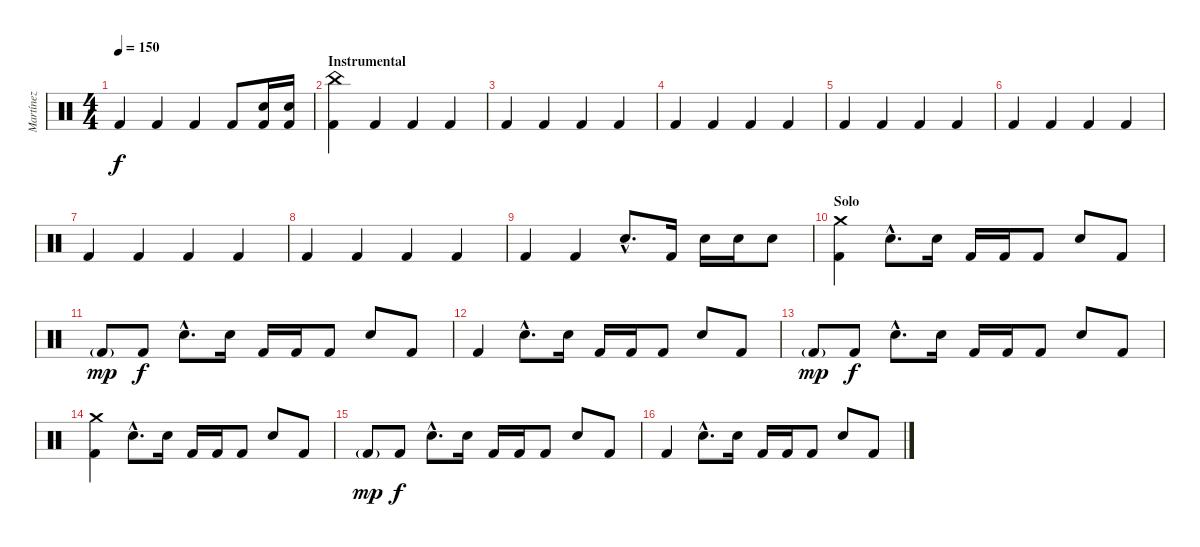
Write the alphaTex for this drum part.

\track ("Martínez" "Martínez") {instrument percussion}
\staff {score}
\articulation defaults
\ts (4 4)
\tempo 150
\clef neutral
\ks c "Kick (hit) 2".4{dy f} "Kick (hit) 2".4 "Kick (hit) 2".4 "Kick (hit) 2".8
("Kick (hit) 2" "Snare (hit) 2").16 ("Kick (hit) 2" "Snare (hit) 2").16 |
\section ("" "Instrumental")
("China (hit)" "Kick (hit) 2").4 "Kick (hit) 2".4 "Kick (hit) 2".4 "Kick (hit) 2".4 |
"Kick (hit) 2".4 "Kick (hit) 2".4 "Kick (hit) 2".4 "Kick (hit) 2".4 |
"Kick (hit) 2".4 "Kick (hit) 2".4 "Kick (hit) 2".4 "Kick (hit) 2".4 |
"Kick (hit) 2".4 "Kick (hit) 2".4 "Kick (hit) 2".4 "Kick (hit) 2".4 |
"Kick (hit) 2".4 "Kick (hit) 2".4 "Kick (hit) 2".4 "Kick (hit) 2".4 |
"Kick (hit) 2".4 "Kick (hit) 2".4 "Kick (hit) 2".4 "Kick (hit) 2".4 |
"Kick (hit) 2".4 "Kick (hit) 2".4 "Kick (hit) 2".4 "Kick (hit) 2".4 |
"Kick (hit) 2".4 "Kick (hit) 2".4 "Electric Snare (hit)"{hac}.8{d} "Kick (hit) 2".16 "Electric Snare (hit)".16 "Electric Snare (hit)".16 "Electric Snare (hit)".8 |
\section ("" "Solo")
("Crash medium (hit)" "Kick (hit) 2").4 "Electric Snare (hit)"{hac}.8{d} "Electric Snare (hit)".16 "Kick (hit) 2".16 "Kick (hit) 2".16 "Kick (hit) 2".8 "Electric Snare (hit)".8 "Kick (hit) 2".8 |
"Kick (hit) 2"{g}.8{dy mp} "Kick (hit) 2".8{dy f} "Electric Snare (hit)"{hac}.8{d} "Electric Snare (hit)".16 "Kick (hit) 2".16 "Kick (hit) 2".16 "Kick (hit) 2".8 "Electric Snare (hit)".8 "Kick (hit) 2".8 |
"Kick (hit) 2".4 "Electric Snare (hit)"{hac}.8{d} "Electric Snare (hit)".16 "Kick (hit) 2".16 "Kick (hit) 2".16 "Kick (hit) 2".8 "Electric Snare (hit)".8 "Kick (hit) 2".8 |
"Kick (hit) 2"{g}.8{dy mp} "Kick (hit) 2".8{dy f} "Electric Snare (hit)"{hac}.8{d} "Electric Snare (hit)".16 "Kick (hit) 2".16 "Kick (hit) 2".16 "Kick (hit) 2".8 "Electric Snare (hit)".8 "Kick (hit) 2".8 |
("Crash medium (hit)" "Kick (hit) 2").4 "Electric Snare (hit)"{hac}.8{d} "Electric Snare (hit)".16 "Kick (hit) 2".16 "Kick (hit) 2".16 "Kick (hit) 2".8 "Electric Snare (hit)".8 "Kick (hit) 2".8 |
"Kick (hit) 2"{g}.8{dy mp} "Kick (hit) 2".8{dy f} "Electric Snare (hit)"{hac}.8{d} "Electric Snare (hit)".16 "Kick (hit) 2".16 "Kick (hit) 2".16 "Kick (hit) 2".8 "Electric Snare (hit)".8 "Kick (hit) 2".8 |
"Kick (hit) 2".4 "Electric Snare (hit)"{hac}.8{d} "Electric Snare (hit)".16 "Kick (hit) 2".16 "Kick (hit) 2".16 "Kick (hit) 2".8 "Electric Snare (hit)".8 "Kick (hit) 2".8
